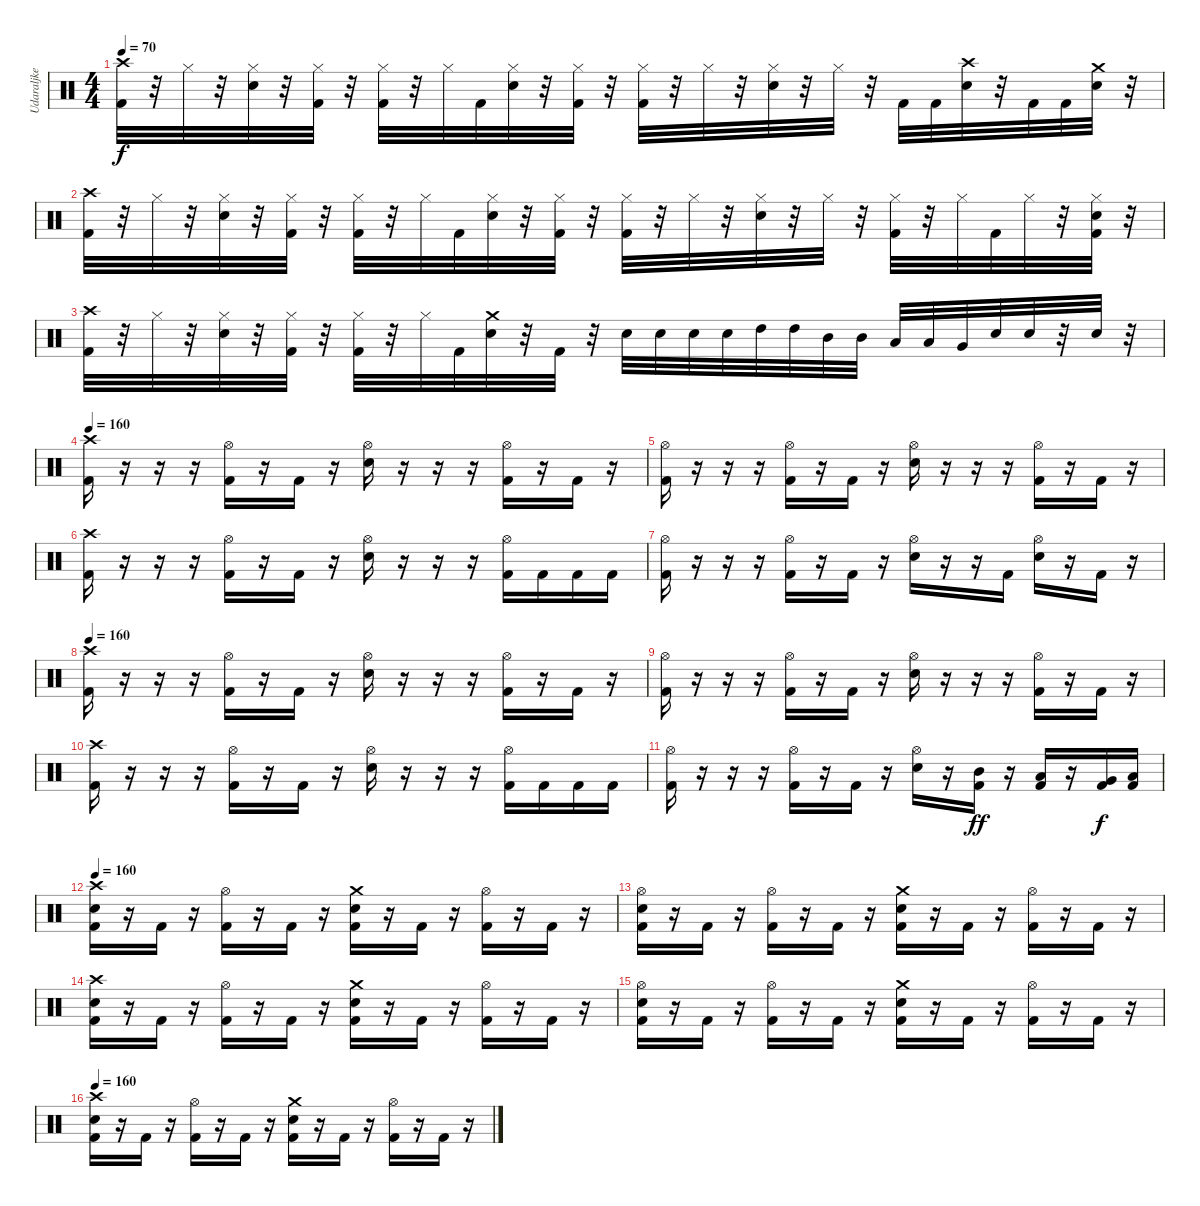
\track ("Udaraljke" "Udaraljke") {instrument percussion}
\staff {score}
\articulation defaults
\ts (4 4)
\tempo 70
\clef neutral
\ks c
("Crash high (hit)" "Kick (hit) 2").32{dy f} r.32 "Hi-Hat (closed)".32 r.32 ("Hi-Hat (closed)" "Snare (hit) 2").32 r.32 ("Hi-Hat (closed)" "Kick (hit) 2").32 r.32 ("Hi-Hat (closed)" "Kick (hit) 2").32 r.32 "Hi-Hat (closed)".32 "Kick (hit) 2".32 ("Hi-Hat (closed)" "Snare (hit) 2").32 r.32 ("Hi-Hat (closed)" "Kick (hit) 2").32 r.32 ("Hi-Hat (closed)" "Kick (hit) 2").32 r.32 "Hi-Hat (closed)".32 r.32 ("Hi-Hat (closed)" "Snare (hit) 2").32 r.32 "Hi-Hat (closed)".32 r.32 "Kick (hit) 2".32 "Kick (hit) 2".32 ("Crash high (hit)" "Snare (hit) 2").32 r.32 "Kick (hit) 2".32 "Kick (hit) 2".32 ("Crash medium (hit)" "Snare (hit) 2").32 r.32 |
("Crash high (hit)" "Kick (hit) 2").32 r.32 "Hi-Hat (closed)".32 r.32 ("Hi-Hat (closed)" "Snare (hit) 2").32 r.32 ("Hi-Hat (closed)" "Kick (hit) 2").32 r.32 ("Hi-Hat (closed)" "Kick (hit) 2").32 r.32 "Hi-Hat (closed)".32 "Kick (hit) 2".32 ("Hi-Hat (closed)" "Snare (hit) 2").32 r.32 ("Hi-Hat (closed)" "Kick (hit) 2").32 r.32 ("Hi-Hat (closed)" "Kick (hit) 2").32 r.32 "Hi-Hat (closed)".32 r.32 ("Hi-Hat (closed)" "Snare (hit) 2").32 r.32 "Hi-Hat (closed)".32 r.32 ("Hi-Hat (closed)" "Kick (hit) 2").32 r.32 "Hi-Hat (closed)".32 "Kick (hit) 2".32 "Hi-Hat (closed)".32 r.32 ("Hi-Hat (closed)" "Snare (hit) 2" "Kick (hit) 2").32 r.32 |
("Crash high (hit)" "Kick (hit) 2").32 r.32 "Hi-Hat (closed)".32 r.32 ("Hi-Hat (closed)" "Snare (hit) 2").32 r.32 ("Hi-Hat (closed)" "Kick (hit) 2").32 r.32 ("Hi-Hat (closed)" "Kick (hit) 2").32 r.32 "Hi-Hat (closed)".32 "Kick (hit) 2".32 ("Crash medium (hit)" "Snare (hit) 2").32 r.32 "Kick (hit) 2".32 r.32 "Snare (hit) 2".32 "Snare (hit) 2".32 "Snare (hit) 2".32 "Snare (hit) 2".32 "High Tom (hit)".32 "High Tom (hit)".32 "Mid Tom (hit)".32 "Mid Tom (hit)".32 "Low Tom (hit)".32 "Low Tom (hit)".32 "Very Low Tom (hit)".32 "Snare (hit) 2".32 "Snare (hit) 2".32 r.32 "Snare (hit) 2".32 r.32 |
\tempo 160
("Crash high (hit)" "Kick (hit) 2").16 r.16 r.16 r.16 ("Hi-Hat (open)" "Kick (hit) 2").16 r.16 "Kick (hit) 2".16 r.16 ("Hi-Hat (open)" "Snare (hit) 2").16 r.16 r.16 r.16 ("Hi-Hat (open)" "Kick (hit) 2").16 r.16 "Kick (hit) 2".16 r.16 |
("Hi-Hat (open)" "Kick (hit) 2").16 r.16 r.16 r.16 ("Hi-Hat (open)" "Kick (hit) 2").16 r.16 "Kick (hit) 2".16 r.16 ("Hi-Hat (open)" "Snare (hit) 2").16 r.16 r.16 r.16 ("Hi-Hat (open)" "Kick (hit) 2").16 r.16 "Kick (hit) 2".16 r.16 |
("Crash high (hit)" "Kick (hit) 2").16 r.16 r.16 r.16 ("Hi-Hat (open)" "Kick (hit) 2").16 r.16 "Kick (hit) 2".16 r.16 ("Hi-Hat (open)" "Snare (hit) 2").16 r.16 r.16 r.16 ("Hi-Hat (open)" "Kick (hit) 2").16 "Kick (hit) 2".16 "Kick (hit) 2".16 "Kick (hit) 2".16 |
("Hi-Hat (open)" "Kick (hit) 2").16 r.16 r.16 r.16 ("Hi-Hat (open)" "Kick (hit) 2").16 r.16 "Kick (hit) 2".16 r.16 ("Hi-Hat (open)" "Snare (hit) 2").16 r.16 r.16 "Kick (hit) 2".16 ("Hi-Hat (open)" "Snare (hit) 2").16 r.16 "Kick (hit) 2".16 r.16 |
\tempo 160
("Crash high (hit)" "Kick (hit) 2").16 r.16 r.16 r.16 ("Hi-Hat (open)" "Kick (hit) 2").16 r.16 "Kick (hit) 2".16 r.16 ("Hi-Hat (open)" "Snare (hit) 2").16 r.16 r.16 r.16 ("Hi-Hat (open)" "Kick (hit) 2").16 r.16 "Kick (hit) 2".16 r.16 |
("Hi-Hat (open)" "Kick (hit) 2").16 r.16 r.16 r.16 ("Hi-Hat (open)" "Kick (hit) 2").16 r.16 "Kick (hit) 2".16 r.16 ("Hi-Hat (open)" "Snare (hit) 2").16 r.16 r.16 r.16 ("Hi-Hat (open)" "Kick (hit) 2").16 r.16 "Kick (hit) 2".16 r.16 |
("Crash high (hit)" "Kick (hit) 2").16 r.16 r.16 r.16 ("Hi-Hat (open)" "Kick (hit) 2").16 r.16 "Kick (hit) 2".16 r.16 ("Hi-Hat (open)" "Snare (hit) 2").16 r.16 r.16 r.16 ("Hi-Hat (open)" "Kick (hit) 2").16 "Kick (hit) 2".16 "Kick (hit) 2".16 "Kick (hit) 2".16 |
("Hi-Hat (open)" "Kick (hit) 2").16 r.16 r.16 r.16 ("Hi-Hat (open)" "Kick (hit) 2").16 r.16 "Kick (hit) 2".16 r.16 ("Hi-Hat (open)" "Snare (hit) 2").16 r.16 ("Mid Tom (hit)" "Kick (hit) 2").16{dy ff} r.16 ("Low Tom (hit)" "Kick (hit) 2").16 r.16 ("Very Low Tom (hit)" "Kick (hit) 2").16{dy f} ("Low Floor Tom (hit)" "Kick (hit) 2").16 |
\tempo 160
("Crash high (hit)" "Snare (hit) 2" "Kick (hit) 2").16 r.16 "Kick (hit) 2".16 r.16 ("Hi-Hat (open)" "Kick (hit) 2").16 r.16 "Kick (hit) 2".16 r.16 ("Crash medium (hit)" "Snare (hit) 2" "Kick (hit) 2").16 r.16 "Kick (hit) 2".16 r.16 ("Hi-Hat (open)" "Kick (hit) 2").16 r.16 "Kick (hit) 2".16 r.16 |
("Hi-Hat (open)" "Snare (hit) 2" "Kick (hit) 2").16 r.16 "Kick (hit) 2".16 r.16 ("Hi-Hat (open)" "Kick (hit) 2").16 r.16 "Kick (hit) 2".16 r.16 ("Crash medium (hit)" "Snare (hit) 2" "Kick (hit) 2").16 r.16 "Kick (hit) 2".16 r.16 ("Hi-Hat (open)" "Kick (hit) 2").16 r.16 "Kick (hit) 2".16 r.16 |
("Crash high (hit)" "Snare (hit) 2" "Kick (hit) 2").16 r.16 "Kick (hit) 2".16 r.16 ("Hi-Hat (open)" "Kick (hit) 2").16 r.16 "Kick (hit) 2".16 r.16 ("Crash medium (hit)" "Snare (hit) 2" "Kick (hit) 2").16 r.16 "Kick (hit) 2".16 r.16 ("Hi-Hat (open)" "Kick (hit) 2").16 r.16 "Kick (hit) 2".16 r.16 |
("Hi-Hat (open)" "Snare (hit) 2" "Kick (hit) 2").16 r.16 "Kick (hit) 2".16 r.16 ("Hi-Hat (open)" "Kick (hit) 2").16 r.16 "Kick (hit) 2".16 r.16 ("Crash medium (hit)" "Snare (hit) 2" "Kick (hit) 2").16 r.16 "Kick (hit) 2".16 r.16 ("Hi-Hat (open)" "Kick (hit) 2").16 r.16 "Kick (hit) 2".16 r.16 |
\tempo 160
("Crash high (hit)" "Snare (hit) 2" "Kick (hit) 2").16 r.16 "Kick (hit) 2".16 r.16 ("Hi-Hat (open)" "Kick (hit) 2").16 r.16 "Kick (hit) 2".16 r.16 ("Crash medium (hit)" "Snare (hit) 2" "Kick (hit) 2").16 r.16 "Kick (hit) 2".16 r.16 ("Hi-Hat (open)" "Kick (hit) 2").16 r.16 "Kick (hit) 2".16 r.16
